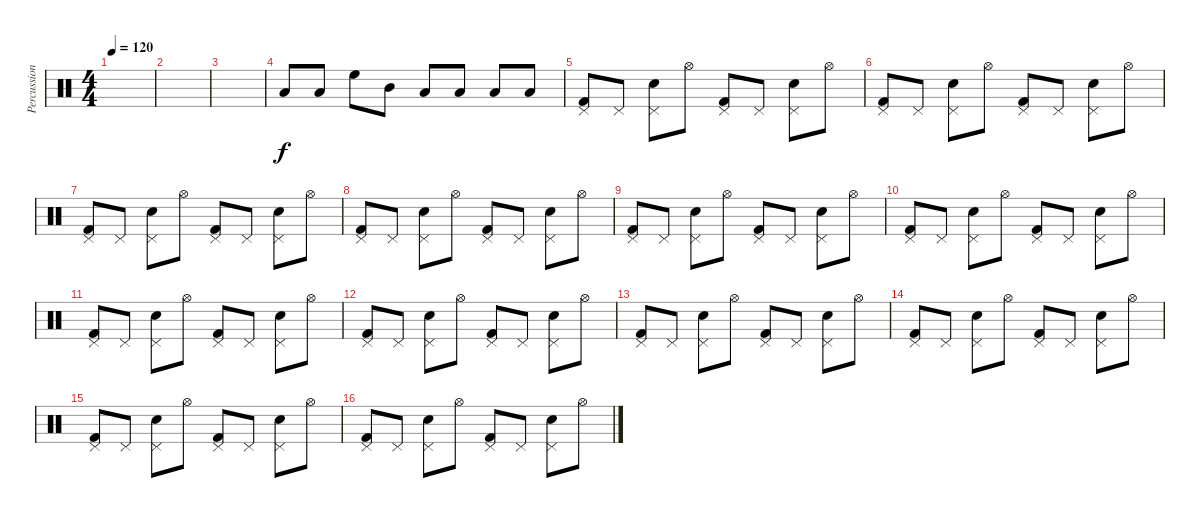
\track ("Percussions" "Percussion") {instrument percussion}
\staff {score}
\articulation defaults
\ts (4 4)
\tempo 120
\clef neutral
\ks c
|
|
|
"Low Floor Tom (hit)".8 "Low Tom (hit)".8 "High Floor Tom (hit)".8 "Mid Tom (hit)".8 "Low Floor Tom (hit)".8 "Low Floor Tom (hit)".8 "Low Floor Tom (hit)".8 "Low Tom (hit)".8 |
("Kick (hit) 2" "Pedal Hi-Hat (hit)").8 "Pedal Hi-Hat (hit)".8 ("Pedal Hi-Hat (hit)" "Snare (hit) 2").8 "Hi-Hat (open)".8 ("Kick (hit) 2" "Pedal Hi-Hat (hit)").8 "Pedal Hi-Hat (hit)".8 ("Pedal Hi-Hat (hit)" "Snare (hit) 2").8 "Hi-Hat (open)".8 |
("Kick (hit) 2" "Pedal Hi-Hat (hit)").8 "Pedal Hi-Hat (hit)".8 ("Pedal Hi-Hat (hit)" "Snare (hit) 2").8 "Hi-Hat (open)".8 ("Kick (hit) 2" "Pedal Hi-Hat (hit)").8 "Pedal Hi-Hat (hit)".8 ("Pedal Hi-Hat (hit)" "Snare (hit) 2").8 "Hi-Hat (open)".8 |
("Kick (hit) 2" "Pedal Hi-Hat (hit)").8 "Pedal Hi-Hat (hit)".8 ("Pedal Hi-Hat (hit)" "Snare (hit) 2").8 "Hi-Hat (open)".8 ("Kick (hit) 2" "Pedal Hi-Hat (hit)").8 "Pedal Hi-Hat (hit)".8 ("Pedal Hi-Hat (hit)" "Snare (hit) 2").8 "Hi-Hat (open)".8 |
("Kick (hit) 2" "Pedal Hi-Hat (hit)").8 "Pedal Hi-Hat (hit)".8 ("Pedal Hi-Hat (hit)" "Snare (hit) 2").8 "Hi-Hat (open)".8 ("Kick (hit) 2" "Pedal Hi-Hat (hit)").8 "Pedal Hi-Hat (hit)".8 ("Pedal Hi-Hat (hit)" "Snare (hit) 2").8 "Hi-Hat (open)".8 |
("Kick (hit) 2" "Pedal Hi-Hat (hit)").8 "Pedal Hi-Hat (hit)".8 ("Pedal Hi-Hat (hit)" "Snare (hit) 2").8 "Hi-Hat (open)".8 ("Kick (hit) 2" "Pedal Hi-Hat (hit)").8 "Pedal Hi-Hat (hit)".8 ("Pedal Hi-Hat (hit)" "Snare (hit) 2").8 "Hi-Hat (open)".8 |
("Kick (hit) 2" "Pedal Hi-Hat (hit)").8 "Pedal Hi-Hat (hit)".8 ("Pedal Hi-Hat (hit)" "Snare (hit) 2").8 "Hi-Hat (open)".8 ("Kick (hit) 2" "Pedal Hi-Hat (hit)").8 "Pedal Hi-Hat (hit)".8 ("Pedal Hi-Hat (hit)" "Snare (hit) 2").8 "Hi-Hat (open)".8 |
("Kick (hit) 2" "Pedal Hi-Hat (hit)").8 "Pedal Hi-Hat (hit)".8 ("Pedal Hi-Hat (hit)" "Snare (hit) 2").8 "Hi-Hat (open)".8 ("Kick (hit) 2" "Pedal Hi-Hat (hit)").8 "Pedal Hi-Hat (hit)".8 ("Pedal Hi-Hat (hit)" "Snare (hit) 2").8 "Hi-Hat (open)".8 |
("Kick (hit) 2" "Pedal Hi-Hat (hit)").8 "Pedal Hi-Hat (hit)".8 ("Pedal Hi-Hat (hit)" "Snare (hit) 2").8 "Hi-Hat (open)".8 ("Kick (hit) 2" "Pedal Hi-Hat (hit)").8 "Pedal Hi-Hat (hit)".8 ("Pedal Hi-Hat (hit)" "Snare (hit) 2").8 "Hi-Hat (open)".8 |
("Kick (hit) 2" "Pedal Hi-Hat (hit)").8 "Pedal Hi-Hat (hit)".8 ("Pedal Hi-Hat (hit)" "Snare (hit) 2").8 "Hi-Hat (open)".8 ("Kick (hit) 2" "Pedal Hi-Hat (hit)").8 "Pedal Hi-Hat (hit)".8 ("Pedal Hi-Hat (hit)" "Snare (hit) 2").8 "Hi-Hat (open)".8 |
("Kick (hit) 2" "Pedal Hi-Hat (hit)").8 "Pedal Hi-Hat (hit)".8 ("Pedal Hi-Hat (hit)" "Snare (hit) 2").8 "Hi-Hat (open)".8 ("Kick (hit) 2" "Pedal Hi-Hat (hit)").8 "Pedal Hi-Hat (hit)".8 ("Pedal Hi-Hat (hit)" "Snare (hit) 2").8 "Hi-Hat (open)".8 |
("Kick (hit) 2" "Pedal Hi-Hat (hit)").8 "Pedal Hi-Hat (hit)".8 ("Pedal Hi-Hat (hit)" "Snare (hit) 2").8 "Hi-Hat (open)".8 ("Kick (hit) 2" "Pedal Hi-Hat (hit)").8 "Pedal Hi-Hat (hit)".8 ("Pedal Hi-Hat (hit)" "Snare (hit) 2").8 "Hi-Hat (open)".8 |
("Kick (hit) 2" "Pedal Hi-Hat (hit)").8 "Pedal Hi-Hat (hit)".8 ("Pedal Hi-Hat (hit)" "Snare (hit) 2").8 "Hi-Hat (open)".8 ("Kick (hit) 2" "Pedal Hi-Hat (hit)").8 "Pedal Hi-Hat (hit)".8 ("Pedal Hi-Hat (hit)" "Snare (hit) 2").8 "Hi-Hat (open)".8
